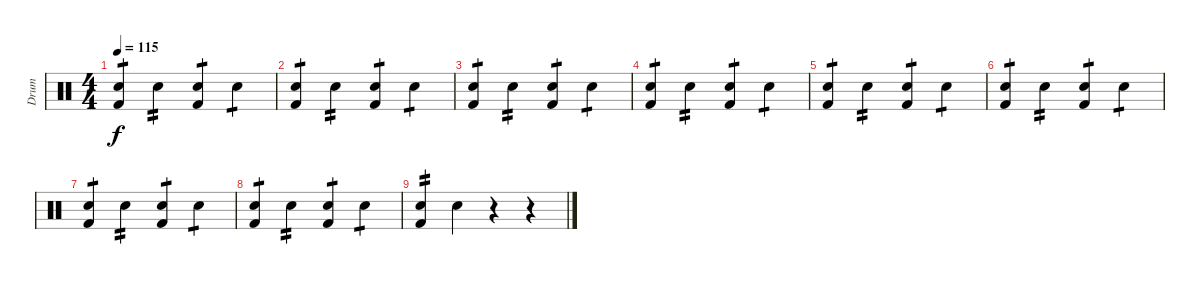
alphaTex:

\track ("Drum" "Drum") {instrument percussion}
\staff {score}
\articulation defaults
\ts (4 4)
\tempo 115
\clef neutral
\ks c
("Kick (hit) 2" "Snare (hit) 2").4{tp 1 dy f} "Snare (hit) 2".4{tp 2} ("Kick (hit) 2" "Snare (hit) 2").4{tp 1} "Snare (hit) 2".4{tp 1} |
("Kick (hit) 2" "Snare (hit) 2").4{tp 1} "Snare (hit) 2".4{tp 2} ("Kick (hit) 2" "Snare (hit) 2").4{tp 1} "Snare (hit) 2".4{tp 1} |
("Kick (hit) 2" "Snare (hit) 2").4{tp 1} "Snare (hit) 2".4{tp 2} ("Kick (hit) 2" "Snare (hit) 2").4{tp 1} "Snare (hit) 2".4{tp 1} |
("Kick (hit) 2" "Snare (hit) 2").4{tp 1} "Snare (hit) 2".4{tp 2} ("Kick (hit) 2" "Snare (hit) 2").4{tp 1} "Snare (hit) 2".4{tp 1} |
("Kick (hit) 2" "Snare (hit) 2").4{tp 1} "Snare (hit) 2".4{tp 2} ("Kick (hit) 2" "Snare (hit) 2").4{tp 1} "Snare (hit) 2".4{tp 1} |
("Kick (hit) 2" "Snare (hit) 2").4{tp 1} "Snare (hit) 2".4{tp 2} ("Kick (hit) 2" "Snare (hit) 2").4{tp 1} "Snare (hit) 2".4{tp 1} |
("Kick (hit) 2" "Snare (hit) 2").4{tp 1} "Snare (hit) 2".4{tp 2} ("Kick (hit) 2" "Snare (hit) 2").4{tp 1} "Snare (hit) 2".4{tp 1} |
("Kick (hit) 2" "Snare (hit) 2").4{tp 1} "Snare (hit) 2".4{tp 2} ("Kick (hit) 2" "Snare (hit) 2").4{tp 1} "Snare (hit) 2".4{tp 1} |
("Kick (hit) 2" "Snare (hit) 2").4{tp 2} "Snare (hit) 2".4 r.4 r.4
